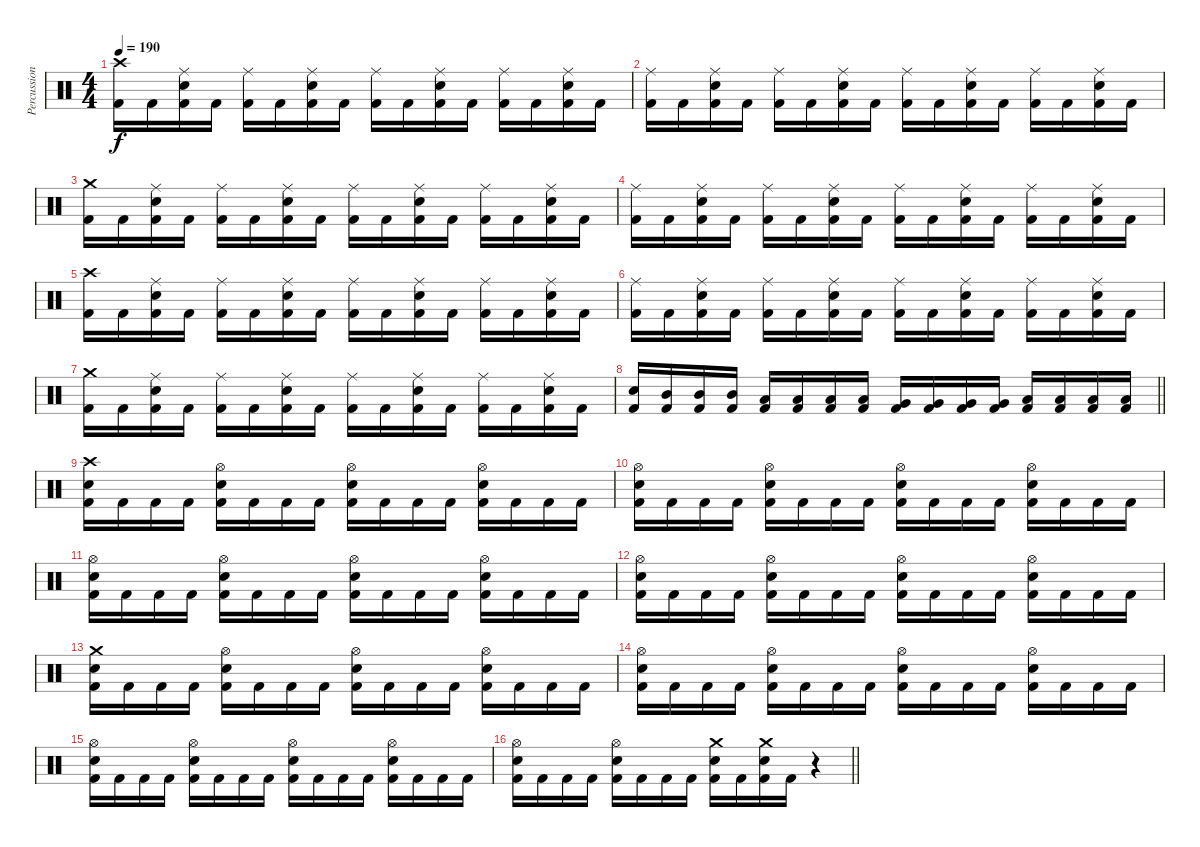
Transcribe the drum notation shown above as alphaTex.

\track ("Percussion" "Percussion") {instrument percussion}
\staff {score}
\articulation defaults
\ts (4 4)
\tempo 190
\clef neutral
\ks c
("Crash high (hit)" "Kick (hit) 2").16{dy f} "Kick (hit) 2".16 ("Ride (middle)" "Snare (hit) 2" "Kick (hit) 2").16 "Kick (hit) 2".16 ("Ride (middle)" "Kick (hit) 2").16 "Kick (hit) 2".16 ("Ride (middle)" "Snare (hit) 2" "Kick (hit) 2").16 "Kick (hit) 2".16 ("Ride (middle)" "Kick (hit) 2").16 "Kick (hit) 2".16 ("Ride (middle)" "Snare (hit) 2" "Kick (hit) 2").16 "Kick (hit) 2".16 ("Ride (middle)" "Kick (hit) 2").16 "Kick (hit) 2".16 ("Ride (middle)" "Snare (hit) 2" "Kick (hit) 2").16 "Kick (hit) 2".16 |
("Ride (middle)" "Kick (hit) 2").16 "Kick (hit) 2".16 ("Ride (middle)" "Snare (hit) 2" "Kick (hit) 2").16 "Kick (hit) 2".16 ("Ride (middle)" "Kick (hit) 2").16 "Kick (hit) 2".16 ("Ride (middle)" "Snare (hit) 2" "Kick (hit) 2").16 "Kick (hit) 2".16 ("Ride (middle)" "Kick (hit) 2").16 "Kick (hit) 2".16 ("Ride (middle)" "Snare (hit) 2" "Kick (hit) 2").16 "Kick (hit) 2".16 ("Ride (middle)" "Kick (hit) 2").16 "Kick (hit) 2".16 ("Ride (middle)" "Snare (hit) 2" "Kick (hit) 2").16 "Kick (hit) 2".16 |
("Crash medium (hit)" "Kick (hit) 2").16 "Kick (hit) 2".16 ("Ride (middle)" "Snare (hit) 2" "Kick (hit) 2").16 "Kick (hit) 2".16 ("Ride (middle)" "Kick (hit) 2").16 "Kick (hit) 2".16 ("Ride (middle)" "Snare (hit) 2" "Kick (hit) 2").16 "Kick (hit) 2".16 ("Ride (middle)" "Kick (hit) 2").16 "Kick (hit) 2".16 ("Ride (middle)" "Snare (hit) 2" "Kick (hit) 2").16 "Kick (hit) 2".16 ("Ride (middle)" "Kick (hit) 2").16 "Kick (hit) 2".16 ("Ride (middle)" "Snare (hit) 2" "Kick (hit) 2").16 "Kick (hit) 2".16 |
("Ride (middle)" "Kick (hit) 2").16 "Kick (hit) 2".16 ("Ride (middle)" "Snare (hit) 2" "Kick (hit) 2").16 "Kick (hit) 2".16 ("Ride (middle)" "Kick (hit) 2").16 "Kick (hit) 2".16 ("Ride (middle)" "Snare (hit) 2" "Kick (hit) 2").16 "Kick (hit) 2".16 ("Ride (middle)" "Kick (hit) 2").16 "Kick (hit) 2".16 ("Ride (middle)" "Snare (hit) 2" "Kick (hit) 2").16 "Kick (hit) 2".16 ("Ride (middle)" "Kick (hit) 2").16 "Kick (hit) 2".16 ("Ride (middle)" "Snare (hit) 2" "Kick (hit) 2").16 "Kick (hit) 2".16 |
("Crash high (hit)" "Kick (hit) 2").16 "Kick (hit) 2".16 ("Ride (middle)" "Snare (hit) 2" "Kick (hit) 2").16 "Kick (hit) 2".16 ("Ride (middle)" "Kick (hit) 2").16 "Kick (hit) 2".16 ("Ride (middle)" "Snare (hit) 2" "Kick (hit) 2").16 "Kick (hit) 2".16 ("Ride (middle)" "Kick (hit) 2").16 "Kick (hit) 2".16 ("Ride (middle)" "Snare (hit) 2" "Kick (hit) 2").16 "Kick (hit) 2".16 ("Ride (middle)" "Kick (hit) 2").16 "Kick (hit) 2".16 ("Ride (middle)" "Snare (hit) 2" "Kick (hit) 2").16 "Kick (hit) 2".16 |
("Ride (middle)" "Kick (hit) 2").16 "Kick (hit) 2".16 ("Ride (middle)" "Snare (hit) 2" "Kick (hit) 2").16 "Kick (hit) 2".16 ("Ride (middle)" "Kick (hit) 2").16 "Kick (hit) 2".16 ("Ride (middle)" "Snare (hit) 2" "Kick (hit) 2").16 "Kick (hit) 2".16 ("Ride (middle)" "Kick (hit) 2").16 "Kick (hit) 2".16 ("Ride (middle)" "Snare (hit) 2" "Kick (hit) 2").16 "Kick (hit) 2".16 ("Ride (middle)" "Kick (hit) 2").16 "Kick (hit) 2".16 ("Ride (middle)" "Snare (hit) 2" "Kick (hit) 2").16 "Kick (hit) 2".16 |
("Crash medium (hit)" "Kick (hit) 2").16 "Kick (hit) 2".16 ("Ride (middle)" "Snare (hit) 2" "Kick (hit) 2").16 "Kick (hit) 2".16 ("Ride (middle)" "Kick (hit) 2").16 "Kick (hit) 2".16 ("Ride (middle)" "Snare (hit) 2" "Kick (hit) 2").16 "Kick (hit) 2".16 ("Ride (middle)" "Kick (hit) 2").16 "Kick (hit) 2".16 ("Ride (middle)" "Snare (hit) 2" "Kick (hit) 2").16 "Kick (hit) 2".16 ("Ride (middle)" "Kick (hit) 2").16 "Kick (hit) 2".16 ("Ride (middle)" "Snare (hit) 2" "Kick (hit) 2").16 "Kick (hit) 2".16 |
\barLineRight lightlight
("Snare (hit) 2" "Kick (hit) 2").16 ("Mid Tom (hit)" "Kick (hit) 2").16 ("Mid Tom (hit)" "Kick (hit) 2").16 ("Mid Tom (hit)" "Kick (hit) 2").16 ("Low Tom (hit)" "Kick (hit) 2").16 ("Low Tom (hit)" "Kick (hit) 2").16 ("Low Tom (hit)" "Kick (hit) 2").16 ("Low Tom (hit)" "Kick (hit) 2").16 ("Very Low Tom (hit)" "Kick (hit) 2").16 ("Very Low Tom (hit)" "Kick (hit) 2").16 ("Very Low Tom (hit)" "Kick (hit) 2").16 ("Very Low Tom (hit)" "Kick (hit) 2").16 ("Low Floor Tom (hit)" "Kick (hit) 2").16 ("Low Floor Tom (hit)" "Kick (hit) 2").16 ("Low Floor Tom (hit)" "Kick (hit) 2").16 ("Low Floor Tom (hit)" "Kick (hit) 2").16 |
("Crash high (hit)" "Snare (hit) 2" "Kick (hit) 2").16 "Kick (hit) 2".16 "Kick (hit) 2".16 "Kick (hit) 2".16 ("Hi-Hat (open)" "Snare (hit) 2" "Kick (hit) 2").16 "Kick (hit) 2".16 "Kick (hit) 2".16 "Kick (hit) 2".16 ("Hi-Hat (open)" "Snare (hit) 2" "Kick (hit) 2").16 "Kick (hit) 2".16 "Kick (hit) 2".16 "Kick (hit) 2".16 ("Hi-Hat (open)" "Snare (hit) 2" "Kick (hit) 2").16 "Kick (hit) 2".16 "Kick (hit) 2".16 "Kick (hit) 2".16 |
("Hi-Hat (open)" "Snare (hit) 2" "Kick (hit) 2").16 "Kick (hit) 2".16 "Kick (hit) 2".16 "Kick (hit) 2".16 ("Hi-Hat (open)" "Snare (hit) 2" "Kick (hit) 2").16 "Kick (hit) 2".16 "Kick (hit) 2".16 "Kick (hit) 2".16 ("Hi-Hat (open)" "Snare (hit) 2" "Kick (hit) 2").16 "Kick (hit) 2".16 "Kick (hit) 2".16 "Kick (hit) 2".16 ("Hi-Hat (open)" "Snare (hit) 2" "Kick (hit) 2").16 "Kick (hit) 2".16 "Kick (hit) 2".16 "Kick (hit) 2".16 |
("Hi-Hat (open)" "Snare (hit) 2" "Kick (hit) 2").16 "Kick (hit) 2".16 "Kick (hit) 2".16 "Kick (hit) 2".16 ("Hi-Hat (open)" "Snare (hit) 2" "Kick (hit) 2").16 "Kick (hit) 2".16 "Kick (hit) 2".16 "Kick (hit) 2".16 ("Hi-Hat (open)" "Snare (hit) 2" "Kick (hit) 2").16 "Kick (hit) 2".16 "Kick (hit) 2".16 "Kick (hit) 2".16 ("Hi-Hat (open)" "Snare (hit) 2" "Kick (hit) 2").16 "Kick (hit) 2".16 "Kick (hit) 2".16 "Kick (hit) 2".16 |
("Hi-Hat (open)" "Snare (hit) 2" "Kick (hit) 2").16 "Kick (hit) 2".16 "Kick (hit) 2".16 "Kick (hit) 2".16 ("Hi-Hat (open)" "Snare (hit) 2" "Kick (hit) 2").16 "Kick (hit) 2".16 "Kick (hit) 2".16 "Kick (hit) 2".16 ("Hi-Hat (open)" "Snare (hit) 2" "Kick (hit) 2").16 "Kick (hit) 2".16 "Kick (hit) 2".16 "Kick (hit) 2".16 ("Hi-Hat (open)" "Snare (hit) 2" "Kick (hit) 2").16 "Kick (hit) 2".16 "Kick (hit) 2".16 "Kick (hit) 2".16 |
("Crash medium (hit)" "Snare (hit) 2" "Kick (hit) 2").16 "Kick (hit) 2".16 "Kick (hit) 2".16 "Kick (hit) 2".16 ("Hi-Hat (open)" "Snare (hit) 2" "Kick (hit) 2").16 "Kick (hit) 2".16 "Kick (hit) 2".16 "Kick (hit) 2".16 ("Hi-Hat (open)" "Snare (hit) 2" "Kick (hit) 2").16 "Kick (hit) 2".16 "Kick (hit) 2".16 "Kick (hit) 2".16 ("Hi-Hat (open)" "Snare (hit) 2" "Kick (hit) 2").16 "Kick (hit) 2".16 "Kick (hit) 2".16 "Kick (hit) 2".16 |
("Hi-Hat (open)" "Snare (hit) 2" "Kick (hit) 2").16 "Kick (hit) 2".16 "Kick (hit) 2".16 "Kick (hit) 2".16 ("Hi-Hat (open)" "Snare (hit) 2" "Kick (hit) 2").16 "Kick (hit) 2".16 "Kick (hit) 2".16 "Kick (hit) 2".16 ("Hi-Hat (open)" "Snare (hit) 2" "Kick (hit) 2").16 "Kick (hit) 2".16 "Kick (hit) 2".16 "Kick (hit) 2".16 ("Hi-Hat (open)" "Snare (hit) 2" "Kick (hit) 2").16 "Kick (hit) 2".16 "Kick (hit) 2".16 "Kick (hit) 2".16 |
("Hi-Hat (open)" "Snare (hit) 2" "Kick (hit) 2").16 "Kick (hit) 2".16 "Kick (hit) 2".16 "Kick (hit) 2".16 ("Hi-Hat (open)" "Snare (hit) 2" "Kick (hit) 2").16 "Kick (hit) 2".16 "Kick (hit) 2".16 "Kick (hit) 2".16 ("Hi-Hat (open)" "Snare (hit) 2" "Kick (hit) 2").16 "Kick (hit) 2".16 "Kick (hit) 2".16 "Kick (hit) 2".16 ("Hi-Hat (open)" "Snare (hit) 2" "Kick (hit) 2").16 "Kick (hit) 2".16 "Kick (hit) 2".16 "Kick (hit) 2".16 |
\barLineRight lightlight
("Hi-Hat (open)" "Snare (hit) 2" "Kick (hit) 2").16 "Kick (hit) 2".16 "Kick (hit) 2".16 "Kick (hit) 2".16 ("Hi-Hat (open)" "Snare (hit) 2" "Kick (hit) 2").16 "Kick (hit) 2".16 "Kick (hit) 2".16 "Kick (hit) 2".16 ("Crash medium (hit)" "Snare (hit) 2" "Kick (hit) 2").16 "Kick (hit) 2".16 ("Crash medium (hit)" "Snare (hit) 2" "Kick (hit) 2").16 "Kick (hit) 2".16 r.4
